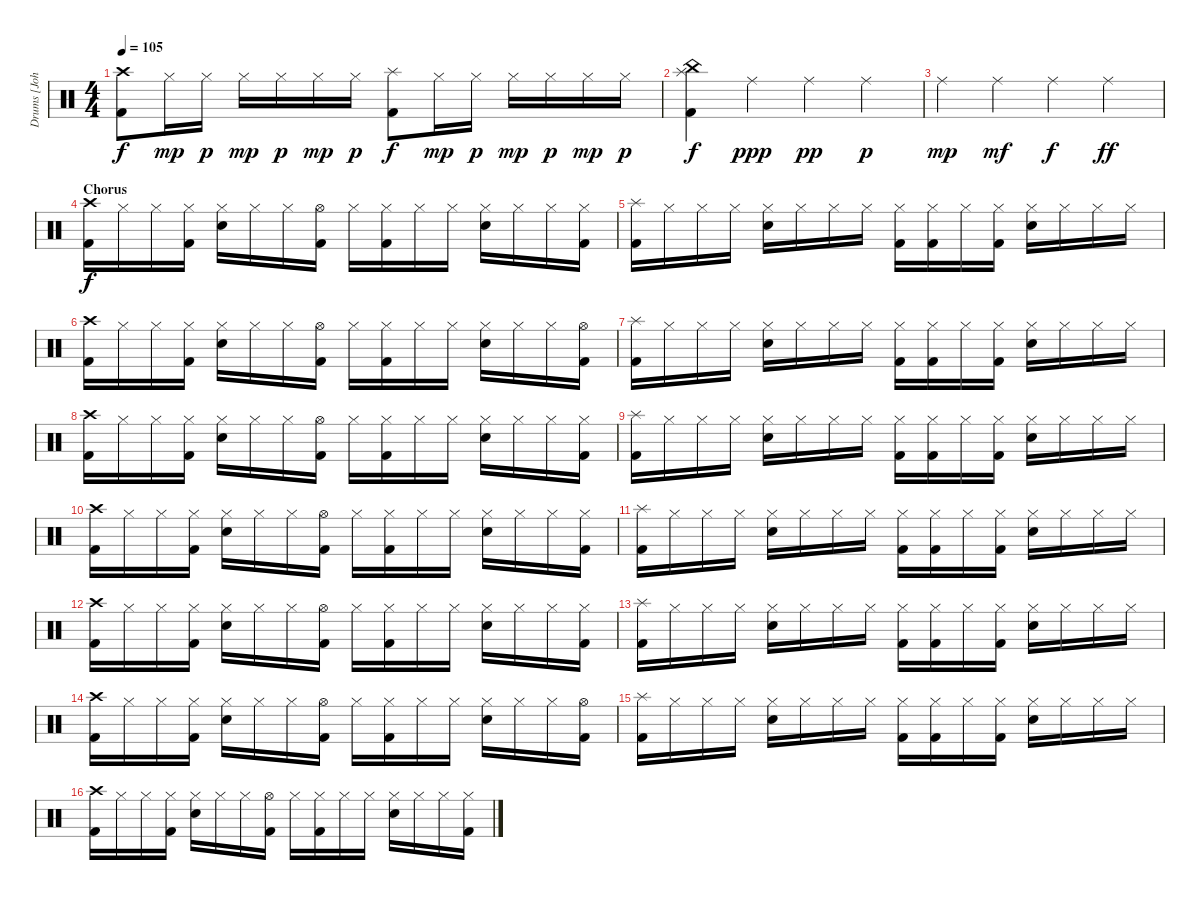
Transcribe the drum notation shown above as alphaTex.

\track ("Drums [John Otto]" "Drums [Joh") {instrument percussion}
\staff {score}
\articulation defaults
\ts (4 4)
\tempo 105
\clef neutral
\ks c
("Crash high (hit)" "Kick (hit) 2").8{dy f volume 13} "Hi-Hat (closed)".16{dy mp} "Hi-Hat (closed)".16{dy p} "Hi-Hat (closed)".16{dy mp} "Hi-Hat (closed)".16{dy p} "Hi-Hat (closed)".16{dy mp} "Hi-Hat (closed)".16{dy p} ("Splash (hit)" "Kick (hit) 2").8{dy f} "Hi-Hat (closed)".16{dy mp} "Hi-Hat (closed)".16{dy p} "Hi-Hat (closed)".16{dy mp} "Hi-Hat (closed)".16{dy p} "Hi-Hat (closed)".16{dy mp} "Hi-Hat (closed)".16{dy p} |
("China (hit)" "Splash (hit)" "Kick (hit) 2").4{dy f} "Ride (middle)".4{dy ppp} "Ride (middle)".4{dy pp} "Ride (middle)".4{dy p} |
"Ride (middle)".4{dy mp} "Ride (middle)".4{dy mf} "Ride (middle)".4{dy f} "Ride (middle)".4{dy ff} |
\section ("" "Chorus")
("Crash high (hit)" "Kick (hit) 2").16{dy f} "Hi-Hat (closed)".16 "Hi-Hat (closed)".16 ("Hi-Hat (closed)" "Kick (hit) 2").16 ("Hi-Hat (closed)" "Electric Snare (hit)").16 "Hi-Hat (closed)".16 "Hi-Hat (closed)".16 ("Hi-Hat (open)" "Kick (hit) 2").16 "Hi-Hat (closed)".16 ("Hi-Hat (closed)" "Kick (hit) 2").16 "Hi-Hat (closed)".16 "Hi-Hat (closed)".16 ("Hi-Hat (closed)" "Electric Snare (hit)").16 "Hi-Hat (closed)".16 "Hi-Hat (closed)".16 ("Hi-Hat (closed)" "Kick (hit) 2").16 |
("Splash (hit)" "Kick (hit) 2").16 "Hi-Hat (closed)".16 "Hi-Hat (closed)".16 "Hi-Hat (closed)".16 ("Hi-Hat (closed)" "Electric Snare (hit)").16 "Hi-Hat (closed)".16 "Hi-Hat (closed)".16 "Hi-Hat (closed)".16 ("Hi-Hat (closed)" "Kick (hit) 2").16 ("Hi-Hat (closed)" "Kick (hit) 2").16 "Hi-Hat (closed)".16 ("Hi-Hat (closed)" "Kick (hit) 2").16 ("Hi-Hat (closed)" "Electric Snare (hit)").16 "Hi-Hat (closed)".16 "Hi-Hat (closed)".16 "Hi-Hat (closed)".16 |
("Crash high (hit)" "Kick (hit) 2").16 "Hi-Hat (closed)".16 "Hi-Hat (closed)".16 ("Hi-Hat (closed)" "Kick (hit) 2").16 ("Hi-Hat (closed)" "Electric Snare (hit)").16 "Hi-Hat (closed)".16 "Hi-Hat (closed)".16 ("Hi-Hat (open)" "Kick (hit) 2").16 "Hi-Hat (closed)".16 ("Hi-Hat (closed)" "Kick (hit) 2").16 "Hi-Hat (closed)".16 "Hi-Hat (closed)".16 ("Hi-Hat (closed)" "Electric Snare (hit)").16 "Hi-Hat (closed)".16 "Hi-Hat (closed)".16 ("Hi-Hat (open)" "Kick (hit) 2").16 |
("Splash (hit)" "Kick (hit) 2").16 "Hi-Hat (closed)".16 "Hi-Hat (closed)".16 "Hi-Hat (closed)".16 ("Hi-Hat (closed)" "Electric Snare (hit)").16 "Hi-Hat (closed)".16 "Hi-Hat (closed)".16 "Hi-Hat (closed)".16 ("Hi-Hat (closed)" "Kick (hit) 2").16 ("Hi-Hat (closed)" "Kick (hit) 2").16 "Hi-Hat (closed)".16 ("Hi-Hat (closed)" "Kick (hit) 2").16 ("Hi-Hat (closed)" "Electric Snare (hit)").16 "Hi-Hat (closed)".16 "Hi-Hat (closed)".16 "Hi-Hat (closed)".16 |
("Crash high (hit)" "Kick (hit) 2").16 "Hi-Hat (closed)".16 "Hi-Hat (closed)".16 ("Hi-Hat (closed)" "Kick (hit) 2").16 ("Hi-Hat (closed)" "Electric Snare (hit)").16 "Hi-Hat (closed)".16 "Hi-Hat (closed)".16 ("Hi-Hat (open)" "Kick (hit) 2").16 "Hi-Hat (closed)".16 ("Hi-Hat (closed)" "Kick (hit) 2").16 "Hi-Hat (closed)".16 "Hi-Hat (closed)".16 ("Hi-Hat (closed)" "Electric Snare (hit)").16 "Hi-Hat (closed)".16 "Hi-Hat (closed)".16 ("Hi-Hat (closed)" "Kick (hit) 2").16 |
("Splash (hit)" "Kick (hit) 2").16 "Hi-Hat (closed)".16 "Hi-Hat (closed)".16 "Hi-Hat (closed)".16 ("Hi-Hat (closed)" "Electric Snare (hit)").16 "Hi-Hat (closed)".16 "Hi-Hat (closed)".16 "Hi-Hat (closed)".16 ("Hi-Hat (closed)" "Kick (hit) 2").16 ("Hi-Hat (closed)" "Kick (hit) 2").16 "Hi-Hat (closed)".16 ("Hi-Hat (closed)" "Kick (hit) 2").16 ("Hi-Hat (closed)" "Electric Snare (hit)").16 "Hi-Hat (closed)".16 "Hi-Hat (closed)".16 "Hi-Hat (closed)".16 |
("Crash high (hit)" "Kick (hit) 2").16 "Hi-Hat (closed)".16 "Hi-Hat (closed)".16 ("Hi-Hat (closed)" "Kick (hit) 2").16 ("Hi-Hat (closed)" "Electric Snare (hit)").16 "Hi-Hat (closed)".16 "Hi-Hat (closed)".16 ("Hi-Hat (open)" "Kick (hit) 2").16 "Hi-Hat (closed)".16 ("Hi-Hat (closed)" "Kick (hit) 2").16 "Hi-Hat (closed)".16 "Hi-Hat (closed)".16 ("Hi-Hat (closed)" "Electric Snare (hit)").16 "Hi-Hat (closed)".16 "Hi-Hat (closed)".16 ("Hi-Hat (closed)" "Kick (hit) 2").16 |
("Splash (hit)" "Kick (hit) 2").16 "Hi-Hat (closed)".16 "Hi-Hat (closed)".16 "Hi-Hat (closed)".16 ("Hi-Hat (closed)" "Electric Snare (hit)").16 "Hi-Hat (closed)".16 "Hi-Hat (closed)".16 "Hi-Hat (closed)".16 ("Hi-Hat (closed)" "Kick (hit) 2").16 ("Hi-Hat (closed)" "Kick (hit) 2").16 "Hi-Hat (closed)".16 ("Hi-Hat (closed)" "Kick (hit) 2").16 ("Hi-Hat (closed)" "Electric Snare (hit)").16 "Hi-Hat (closed)".16 "Hi-Hat (closed)".16 "Hi-Hat (closed)".16 |
("Crash high (hit)" "Kick (hit) 2").16 "Hi-Hat (closed)".16 "Hi-Hat (closed)".16 ("Hi-Hat (closed)" "Kick (hit) 2").16 ("Hi-Hat (closed)" "Electric Snare (hit)").16 "Hi-Hat (closed)".16 "Hi-Hat (closed)".16 ("Hi-Hat (open)" "Kick (hit) 2").16 "Hi-Hat (closed)".16 ("Hi-Hat (closed)" "Kick (hit) 2").16 "Hi-Hat (closed)".16 "Hi-Hat (closed)".16 ("Hi-Hat (closed)" "Electric Snare (hit)").16 "Hi-Hat (closed)".16 "Hi-Hat (closed)".16 ("Hi-Hat (closed)" "Kick (hit) 2").16 |
("Splash (hit)" "Kick (hit) 2").16 "Hi-Hat (closed)".16 "Hi-Hat (closed)".16 "Hi-Hat (closed)".16 ("Hi-Hat (closed)" "Electric Snare (hit)").16 "Hi-Hat (closed)".16 "Hi-Hat (closed)".16 "Hi-Hat (closed)".16 ("Hi-Hat (closed)" "Kick (hit) 2").16 ("Hi-Hat (closed)" "Kick (hit) 2").16 "Hi-Hat (closed)".16 ("Hi-Hat (closed)" "Kick (hit) 2").16 ("Hi-Hat (closed)" "Electric Snare (hit)").16 "Hi-Hat (closed)".16 "Hi-Hat (closed)".16 "Hi-Hat (closed)".16 |
("Crash high (hit)" "Kick (hit) 2").16 "Hi-Hat (closed)".16 "Hi-Hat (closed)".16 ("Hi-Hat (closed)" "Kick (hit) 2").16 ("Hi-Hat (closed)" "Electric Snare (hit)").16 "Hi-Hat (closed)".16 "Hi-Hat (closed)".16 ("Hi-Hat (open)" "Kick (hit) 2").16 "Hi-Hat (closed)".16 ("Hi-Hat (closed)" "Kick (hit) 2").16 "Hi-Hat (closed)".16 "Hi-Hat (closed)".16 ("Hi-Hat (closed)" "Electric Snare (hit)").16 "Hi-Hat (closed)".16 "Hi-Hat (closed)".16 ("Hi-Hat (open)" "Kick (hit) 2").16 |
("Splash (hit)" "Kick (hit) 2").16 "Hi-Hat (closed)".16 "Hi-Hat (closed)".16 "Hi-Hat (closed)".16 ("Hi-Hat (closed)" "Electric Snare (hit)").16 "Hi-Hat (closed)".16 "Hi-Hat (closed)".16 "Hi-Hat (closed)".16 ("Hi-Hat (closed)" "Kick (hit) 2").16 ("Hi-Hat (closed)" "Kick (hit) 2").16 "Hi-Hat (closed)".16 ("Hi-Hat (closed)" "Kick (hit) 2").16 ("Hi-Hat (closed)" "Electric Snare (hit)").16 "Hi-Hat (closed)".16 "Hi-Hat (closed)".16 "Hi-Hat (closed)".16 |
("Crash high (hit)" "Kick (hit) 2").16 "Hi-Hat (closed)".16 "Hi-Hat (closed)".16 ("Hi-Hat (closed)" "Kick (hit) 2").16 ("Hi-Hat (closed)" "Electric Snare (hit)").16 "Hi-Hat (closed)".16 "Hi-Hat (closed)".16 ("Hi-Hat (open)" "Kick (hit) 2").16 "Hi-Hat (closed)".16 ("Hi-Hat (closed)" "Kick (hit) 2").16 "Hi-Hat (closed)".16 "Hi-Hat (closed)".16 ("Hi-Hat (closed)" "Electric Snare (hit)").16 "Hi-Hat (closed)".16 "Hi-Hat (closed)".16 ("Hi-Hat (closed)" "Kick (hit) 2").16
